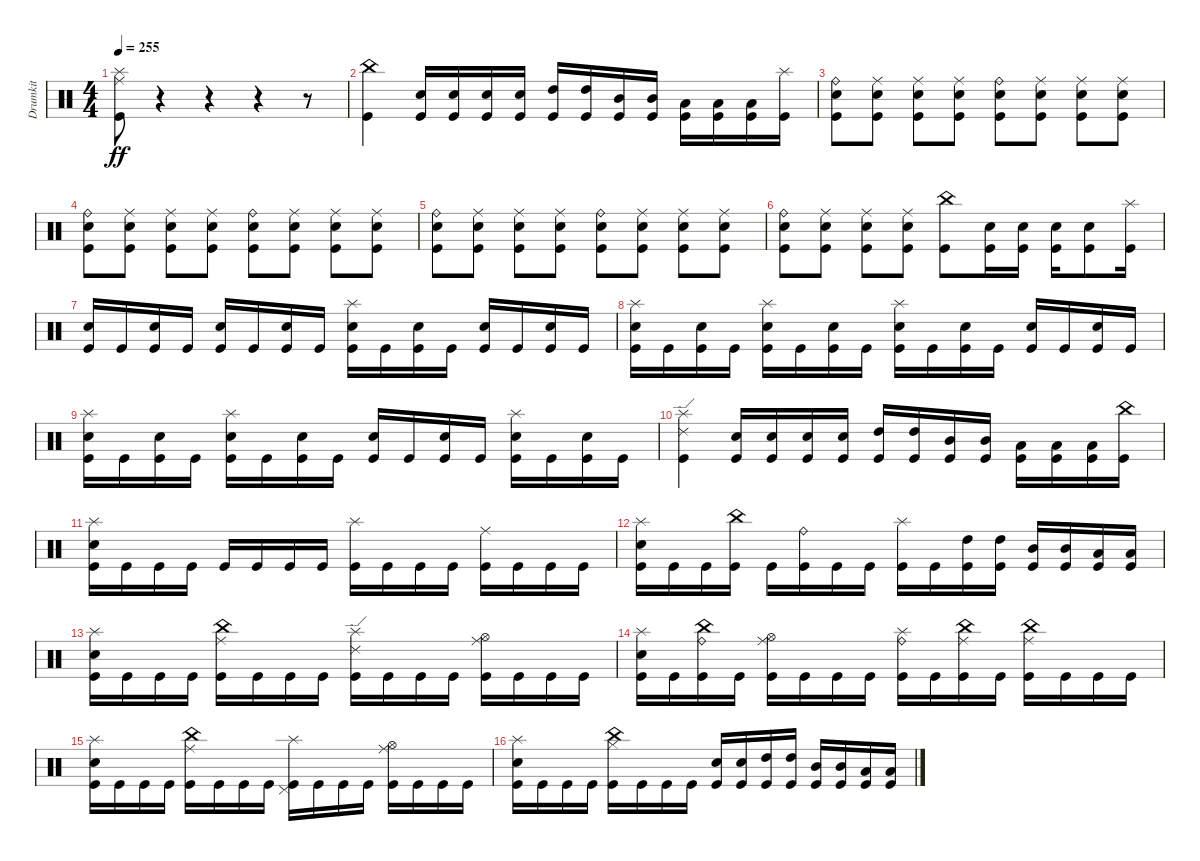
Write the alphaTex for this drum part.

\track ("Drumkit" "Drumkit") {instrument percussion}
\staff {score}
\articulation defaults
\ts (4 4)
\tempo 255
\clef neutral
\ks c
("Splash (hit)" "Ride (middle)" "Kick (hit)").8{dy ff} r.4 r.4 r.4 r.8 |
("China (hit)" "Kick (hit)").4 ("Snare (hit) 2" "Kick (hit)").16 ("Snare (hit) 2" "Kick (hit)").16 ("Snare (hit) 2" "Kick (hit)").16 ("Snare (hit) 2" "Kick (hit)").16 ("High Tom (hit)" "Kick (hit)").16 ("High Tom (hit)" "Kick (hit)").16 ("Mid Tom (hit)" "Kick (hit)").16 ("Mid Tom (hit)" "Kick (hit)").16 ("Low Tom (hit)" "Kick (hit)").16 ("Low Tom (hit)" "Kick (hit)").16 ("Low Tom (hit)" "Kick (hit)").16 ("Splash (hit)" "Kick (hit)").16 |
("Ride (bell)" "Kick (hit)" "Snare (hit) 2").8 ("Ride (middle)" "Kick (hit)" "Snare (hit) 2").8 ("Ride (middle)" "Kick (hit)" "Snare (hit) 2").8 ("Ride (middle)" "Kick (hit)" "Snare (hit) 2").8 ("Ride (bell)" "Kick (hit)" "Snare (hit) 2").8 ("Ride (middle)" "Kick (hit)" "Snare (hit) 2").8 ("Ride (middle)" "Kick (hit)" "Snare (hit) 2").8 ("Ride (middle)" "Kick (hit)" "Snare (hit) 2").8 |
("Ride (bell)" "Kick (hit)" "Snare (hit) 2").8 ("Ride (middle)" "Kick (hit)" "Snare (hit) 2").8 ("Ride (middle)" "Kick (hit)" "Snare (hit) 2").8 ("Ride (middle)" "Kick (hit)" "Snare (hit) 2").8 ("Ride (bell)" "Kick (hit)" "Snare (hit) 2").8 ("Ride (middle)" "Kick (hit)" "Snare (hit) 2").8 ("Ride (middle)" "Kick (hit)" "Snare (hit) 2").8 ("Ride (middle)" "Kick (hit)" "Snare (hit) 2").8 |
("Ride (bell)" "Kick (hit)" "Snare (hit) 2").8 ("Ride (middle)" "Kick (hit)" "Snare (hit) 2").8 ("Ride (middle)" "Kick (hit)" "Snare (hit) 2").8 ("Ride (middle)" "Kick (hit)" "Snare (hit) 2").8 ("Ride (bell)" "Kick (hit)" "Snare (hit) 2").8 ("Ride (middle)" "Kick (hit)" "Snare (hit) 2").8 ("Ride (middle)" "Kick (hit)" "Snare (hit) 2").8 ("Ride (middle)" "Kick (hit)" "Snare (hit) 2").8 |
("Ride (bell)" "Kick (hit)" "Snare (hit) 2").8 ("Ride (middle)" "Kick (hit)" "Snare (hit) 2").8 ("Ride (middle)" "Kick (hit)" "Snare (hit) 2").8 ("Ride (middle)" "Kick (hit)" "Snare (hit) 2").8 ("Kick (hit)" "China (hit)").8 ("Snare (hit) 2" "Kick (hit)").16 ("Snare (hit) 2" "Kick (hit)").16 ("Snare (hit) 2" "Kick (hit)").16 ("Snare (hit) 2" "Kick (hit)").8 ("Splash (hit)" "Kick (hit)").16 |
("Snare (hit) 2" "Kick (hit)").16 "Kick (hit)".16 ("Snare (hit) 2" "Kick (hit)").16 "Kick (hit)".16 ("Snare (hit) 2" "Kick (hit)").16 "Kick (hit)".16 ("Snare (hit) 2" "Kick (hit)").16 "Kick (hit)".16 ("Snare (hit) 2" "Splash (hit)" "Kick (hit)").16 "Kick (hit)".16 ("Snare (hit) 2" "Kick (hit)").16 "Kick (hit)".16 ("Snare (hit) 2" "Kick (hit)").16 "Kick (hit)".16 ("Snare (hit) 2" "Kick (hit)").16 "Kick (hit)".16 |
("Snare (hit) 2" "Splash (hit)" "Kick (hit)").16 "Kick (hit)".16 ("Snare (hit) 2" "Kick (hit)").16 "Kick (hit)".16 ("Snare (hit) 2" "Splash (hit)" "Kick (hit)").16 "Kick (hit)".16 ("Snare (hit) 2" "Kick (hit)").16 "Kick (hit)".16 ("Snare (hit) 2" "Splash (hit)" "Kick (hit)").16 "Kick (hit)".16 ("Snare (hit) 2" "Kick (hit)").16 "Kick (hit)".16 ("Snare (hit) 2" "Kick (hit)").16 "Kick (hit)".16 ("Snare (hit) 2" "Kick (hit)").16 "Kick (hit)".16 |
("Snare (hit) 2" "Splash (hit)" "Kick (hit)").16 "Kick (hit)".16 ("Snare (hit) 2" "Kick (hit)").16 "Kick (hit)".16 ("Snare (hit) 2" "Splash (hit)" "Kick (hit)").16 "Kick (hit)".16 ("Snare (hit) 2" "Kick (hit)").16 "Kick (hit)".16 ("Snare (hit) 2" "Kick (hit)").16 "Kick (hit)".16 ("Snare (hit) 2" "Kick (hit)").16 "Kick (hit)".16 ("Snare (hit) 2" "Splash (hit)" "Kick (hit)").16 "Kick (hit)".16 ("Snare (hit) 2" "Kick (hit)").16 "Kick (hit)".16 |
("Kick (hit)" "Ride (edge) 2" "Splash (hit)").4 ("Snare (hit) 2" "Kick (hit)").16 ("Snare (hit) 2" "Kick (hit)").16 ("Snare (hit) 2" "Kick (hit)").16 ("Snare (hit) 2" "Kick (hit)").16 ("High Tom (hit)" "Kick (hit)").16 ("High Tom (hit)" "Kick (hit)").16 ("Mid Tom (hit)" "Kick (hit)").16 ("Mid Tom (hit)" "Kick (hit)").16 ("Low Tom (hit)" "Kick (hit)").16 ("Low Tom (hit)" "Kick (hit)").16 ("Low Tom (hit)" "Kick (hit)").16 ("China (hit)" "Kick (hit)").16 |
("Splash (hit)" "Snare (hit) 2" "Kick (hit)").16 "Kick (hit)".16 "Kick (hit)".16 "Kick (hit)".16 "Kick (hit)".16 "Kick (hit)".16 "Kick (hit)".16 "Kick (hit)".16 ("Splash (hit)" "Kick (hit)").16 "Kick (hit)".16 "Kick (hit)".16 "Kick (hit)".16 ("Ride (middle)" "Kick (hit)").16 "Kick (hit)".16 "Kick (hit)".16 "Kick (hit)".16 |
("Splash (hit)" "Snare (hit) 2" "Kick (hit)").16 "Kick (hit)".16 "Kick (hit)".16 ("China (hit)" "Kick (hit)").16 "Kick (hit)".16 ("Ride (bell)" "Kick (hit)").16 "Kick (hit)".16 "Kick (hit)".16 ("Splash (hit)" "Kick (hit)").16 "Kick (hit)".16 ("High Tom (hit)" "Kick (hit)").16 ("High Tom (hit)" "Kick (hit)").16 ("Mid Tom (hit)" "Kick (hit)").16 ("Mid Tom (hit)" "Kick (hit)").16 ("Low Tom (hit)" "Kick (hit)").16 ("Low Tom (hit)" "Kick (hit)").16 |
("Splash (hit)" "Snare (hit) 2" "Kick (hit)").16 "Kick (hit)".16 "Kick (hit)".16 "Kick (hit)".16 ("Ride (middle)" "Kick (hit)" "China (hit)").16 "Kick (hit)".16 "Kick (hit)".16 "Kick (hit)".16 ("Splash (hit)" "Kick (hit)" "Ride (edge) 2").16 "Kick (hit)".16 "Kick (hit)".16 "Kick (hit)".16 ("Ride (middle)" "Kick (hit)" "Hi-Hat (open)").16 "Kick (hit)".16 "Kick (hit)".16 "Kick (hit)".16 |
("Splash (hit)" "Snare (hit) 2" "Kick (hit)").16 "Kick (hit)".16 ("Kick (hit)" "China (hit)" "Ride (bell)").16 "Kick (hit)".16 ("Ride (middle)" "Kick (hit)" "Hi-Hat (open)").16 "Kick (hit)".16 "Kick (hit)".16 "Kick (hit)".16 ("Kick (hit)" "Splash (hit)" "Ride (bell)").16 "Kick (hit)".16 ("Kick (hit)" "Ride (middle)" "China (hit)").16 "Kick (hit)".16 ("Kick (hit)" "China (hit)" "Ride (middle)").16 "Kick (hit)".16 "Kick (hit)".16 "Kick (hit)".16 |
("Splash (hit)" "Snare (hit) 2" "Kick (hit)").16 "Kick (hit)".16 "Kick (hit)".16 "Kick (hit)".16 ("China (hit)" "Kick (hit)" "Ride (middle)").16 "Kick (hit)".16 "Kick (hit)".16 "Kick (hit)".16 ("Splash (hit)" "Kick (hit)" "Pedal Hi-Hat (hit)").16 "Kick (hit)".16 "Kick (hit)".16 "Kick (hit)".16 ("Ride (middle)" "Kick (hit)" "Hi-Hat (open)").16 "Kick (hit)".16 "Kick (hit)".16 "Kick (hit)".16 |
("Splash (hit)" "Snare (hit) 2" "Kick (hit)").16 "Kick (hit)".16 "Kick (hit)".16 "Kick (hit)".16 ("Hi-Hat (closed)" "Kick (hit)" "China (hit)").16 "Kick (hit)".16 "Kick (hit)".16 "Kick (hit)".16 ("Snare (hit) 2" "Kick (hit)").16 ("Snare (hit) 2" "Kick (hit)").16 ("High Tom (hit)" "Kick (hit)").16 ("High Tom (hit)" "Kick (hit)").16 ("Mid Tom (hit)" "Kick (hit)").16 ("Mid Tom (hit)" "Kick (hit)").16 ("Low Tom (hit)" "Kick (hit)").16 ("Low Tom (hit)" "Kick (hit)").16
